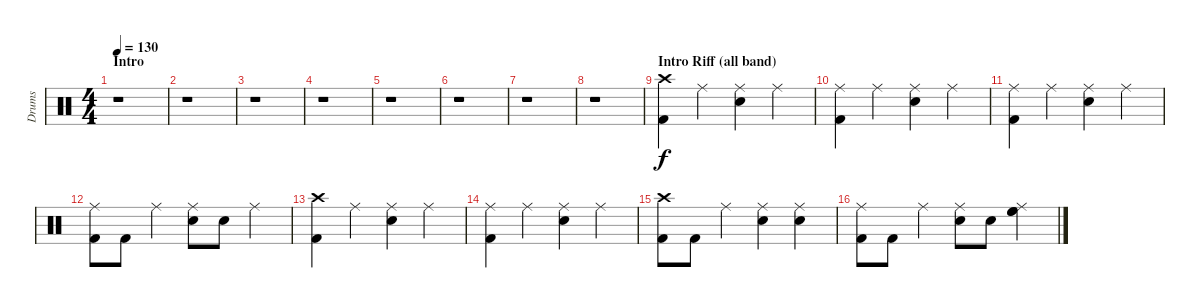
\track ("Drums" "Drums") {instrument percussion}
\staff {score}
\articulation defaults
\ts (4 4)
\section ("" "Intro")
\tempo 130
\clef neutral
\ks c
r.1{dy f} |
r.1 |
r.1 |
r.1 |
r.1 |
r.1 |
r.1 |
r.1 |
\section ("" "Intro Riff (all band)")
("Crash high (hit)" "Kick (hit) 2").4 "Ride (middle)".4 ("Ride (middle)" "Snare (hit) 2").4 "Ride (middle)".4 |
("Ride (middle)" "Kick (hit) 2").4 "Ride (middle)".4 ("Ride (middle)" "Snare (hit) 2").4 "Ride (middle)".4 |
("Ride (middle)" "Kick (hit) 2").4 "Ride (middle)".4 ("Ride (middle)" "Snare (hit) 2").4 "Ride (middle)".4 |
("Ride (middle)" "Kick (hit) 2").8 "Kick (hit) 2".8 "Ride (middle)".4 ("Ride (middle)" "Snare (hit) 2").8 "Snare (hit) 2".8 "Ride (middle)".4 |
("Crash high (hit)" "Kick (hit) 2").4 "Ride (middle)".4 ("Ride (middle)" "Snare (hit) 2").4 "Ride (middle)".4 |
("Ride (middle)" "Kick (hit) 2").4 "Ride (middle)".4 ("Ride (middle)" "Snare (hit) 2").4 "Ride (middle)".4 |
("Crash high (hit)" "Kick (hit) 2").8 "Kick (hit) 2".8 "Ride (middle)".4 ("Ride (middle)" "Snare (hit) 2").4 ("Ride (middle)" "Snare (hit) 2").4 |
("Ride (middle)" "Kick (hit) 2").8 "Kick (hit) 2".8 "Ride (middle)".4 ("Ride (middle)" "Snare (hit) 2").8 "Snare (hit) 2".8 ("Ride (middle)" "High Floor Tom (hit)" "High Floor Tom (hit)").4
